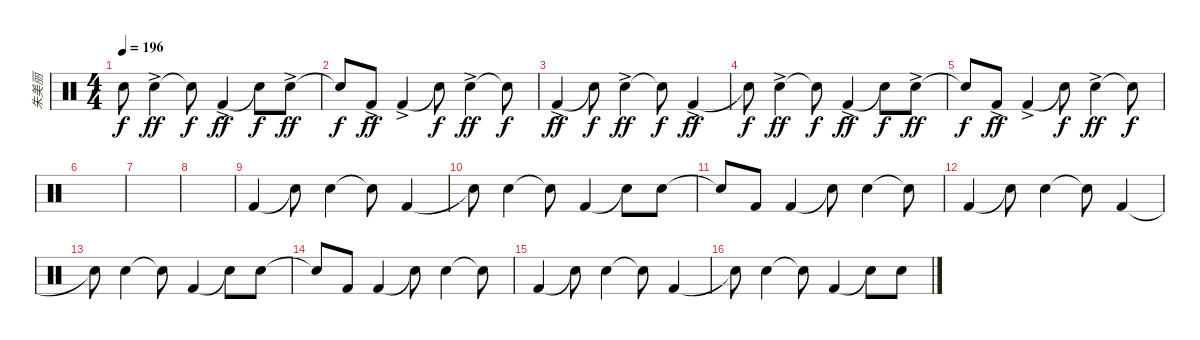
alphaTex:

\track ("朱美丽" "朱美丽") {instrument percussion}
\staff {score}
\articulation defaults
\ts (4 4)
\tempo 196
\clef neutral
\ks c "Snare (hit)"{t}.8{dy f} "Electric Snare (hit)"{ac}.4{dy ff} "Snare (hit)"{t}.8{dy f} "Kick (hit) 2"{ac}.4{dy ff} "Snare (hit)"{t}.8{dy f} "Electric Snare (hit)"{ac}.8{dy ff}
|
"Snare (hit)"{t}.8{dy f} "Kick (hit) 2"{ac}.8{dy ff} "Kick (hit) 2"{ac}.4 "Snare (hit)"{t}.8{dy f} "Electric Snare (hit)"{ac}.4{dy ff} "Snare (hit)"{t}.8{dy f} |
"Kick (hit) 2"{ac}.4{dy ff} "Snare (hit)"{t}.8{dy f} "Electric Snare (hit)"{ac}.4{dy ff} "Snare (hit)"{t}.8{dy f} "Kick (hit) 2"{ac}.4{dy ff} |
"Snare (hit)"{t}.8{dy f} "Electric Snare (hit)"{ac}.4{dy ff} "Snare (hit)"{t}.8{dy f} "Kick (hit) 2"{ac}.4{dy ff} "Snare (hit)"{t}.8{dy f} "Electric Snare (hit)"{ac}.8{dy ff} |
"Snare (hit)"{t}.8{dy f} "Kick (hit) 2"{ac}.8{dy ff} "Kick (hit) 2"{ac}.4 "Snare (hit)"{t}.8{dy f} "Electric Snare (hit)"{ac}.4{dy ff} "Snare (hit)"{t}.8{dy f} |
|
|
|
"Kick (hit) 2".4 "Snare (hit)"{t}.8 "Electric Snare (hit)".4 "Snare (hit)"{t}.8 "Kick (hit) 2".4 |
"Snare (hit)"{t}.8 "Electric Snare (hit)".4 "Snare (hit)"{t}.8 "Kick (hit) 2".4 "Snare (hit)"{t}.8 "Electric Snare (hit)".8 |
"Snare (hit)"{t}.8 "Kick (hit) 2".8 "Kick (hit) 2".4 "Snare (hit)"{t}.8 "Electric Snare (hit)".4 "Snare (hit)"{t}.8 |
"Kick (hit) 2".4 "Snare (hit)"{t}.8 "Electric Snare (hit)".4 "Snare (hit)"{t}.8 "Kick (hit) 2".4 |
"Snare (hit)"{t}.8 "Electric Snare (hit)".4 "Snare (hit)"{t}.8 "Kick (hit) 2".4 "Snare (hit)"{t}.8 "Electric Snare (hit)".8 |
"Snare (hit)"{t}.8 "Kick (hit) 2".8 "Kick (hit) 2".4 "Snare (hit)"{t}.8 "Electric Snare (hit)".4 "Snare (hit)"{t}.8 |
"Kick (hit) 2".4 "Snare (hit)"{t}.8 "Electric Snare (hit)".4 "Snare (hit)"{t}.8 "Kick (hit) 2".4 |
"Snare (hit)"{t}.8 "Electric Snare (hit)".4 "Snare (hit)"{t}.8 "Kick (hit) 2".4 "Snare (hit)"{t}.8 "Electric Snare (hit)".8
